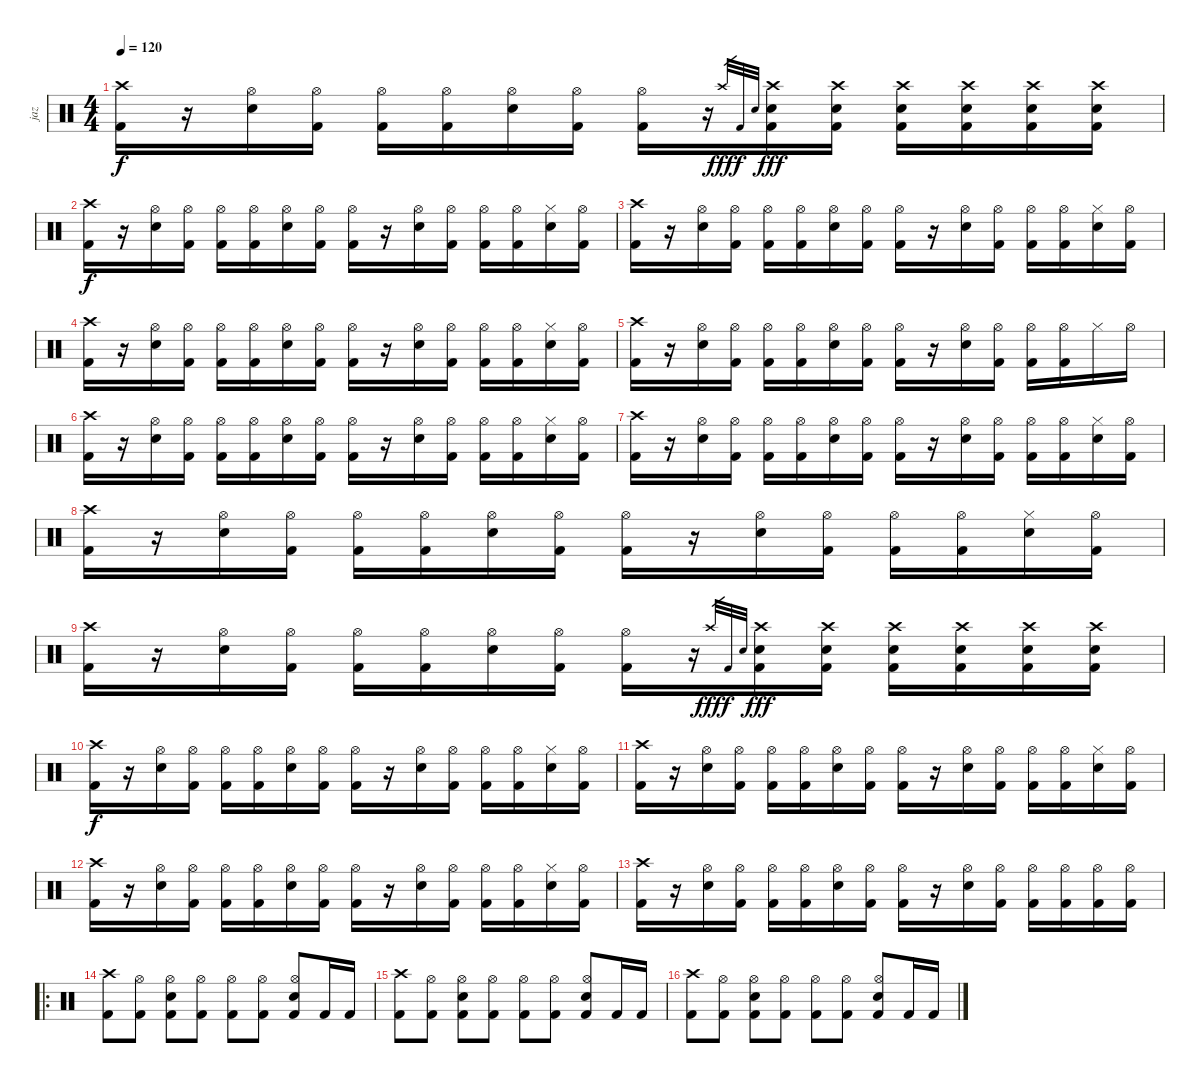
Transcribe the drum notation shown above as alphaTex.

\track ("jaz" "jaz") {instrument percussion}
\staff {score}
\articulation defaults
\ts (4 4)
\tempo 120
\clef neutral
\ks c
("Crash high (hit)" "Kick (hit) 2").16{dy f} r.16 ("Hi-Hat (open)" "Electric Snare (hit)").16 ("Hi-Hat (open)" "Kick (hit) 2").16 ("Hi-Hat (open)" "Kick (hit) 2").16 ("Hi-Hat (open)" "Kick (hit) 2").16 ("Hi-Hat (open)" "Electric Snare (hit)").16 ("Hi-Hat (open)" "Kick (hit) 2").16 ("Hi-Hat (open)" "Kick (hit) 2").16 r.16 "Crash high (hit)".32{gr dy fff} "Kick (hit) 2".32{gr dy f} "Electric Snare (hit)".32{gr} ("Crash high (hit)" "Kick (hit) 2" "Electric Snare (hit)").16{dy fff} ("Crash high (hit)" "Kick (hit) 2" "Electric Snare (hit)").16 ("Crash high (hit)" "Kick (hit) 2" "Electric Snare (hit)").16 ("Crash high (hit)" "Kick (hit) 2" "Electric Snare (hit)").16 ("Crash high (hit)" "Kick (hit) 2" "Electric Snare (hit)").16 ("Crash high (hit)" "Kick (hit) 2" "Electric Snare (hit)").16 |
("Crash high (hit)" "Kick (hit) 2").16{dy f} r.16 ("Hi-Hat (open)" "Electric Snare (hit)").16 ("Hi-Hat (open)" "Kick (hit) 2").16 ("Hi-Hat (open)" "Kick (hit) 2").16 ("Hi-Hat (open)" "Kick (hit) 2").16 ("Hi-Hat (open)" "Electric Snare (hit)").16 ("Hi-Hat (open)" "Kick (hit) 2").16 ("Hi-Hat (open)" "Kick (hit) 2").16 r.16 ("Hi-Hat (open)" "Electric Snare (hit)").16 ("Hi-Hat (open)" "Kick (hit) 2").16 ("Hi-Hat (open)" "Kick (hit) 2").16 ("Hi-Hat (open)" "Kick (hit) 2").16 ("Hi-Hat (closed)" "Electric Snare (hit)").16 ("Hi-Hat (open)" "Kick (hit) 2").16 |
("Crash high (hit)" "Kick (hit) 2").16 r.16 ("Hi-Hat (open)" "Electric Snare (hit)").16 ("Hi-Hat (open)" "Kick (hit) 2").16 ("Hi-Hat (open)" "Kick (hit) 2").16 ("Hi-Hat (open)" "Kick (hit) 2").16 ("Hi-Hat (open)" "Electric Snare (hit)").16 ("Hi-Hat (open)" "Kick (hit) 2").16 ("Hi-Hat (open)" "Kick (hit) 2").16 r.16 ("Hi-Hat (open)" "Electric Snare (hit)").16 ("Hi-Hat (open)" "Kick (hit) 2").16 ("Hi-Hat (open)" "Kick (hit) 2").16 ("Hi-Hat (open)" "Kick (hit) 2").16 ("Hi-Hat (closed)" "Electric Snare (hit)").16 ("Hi-Hat (open)" "Kick (hit) 2").16 |
("Crash high (hit)" "Kick (hit) 2").16 r.16 ("Hi-Hat (open)" "Electric Snare (hit)").16 ("Hi-Hat (open)" "Kick (hit) 2").16 ("Hi-Hat (open)" "Kick (hit) 2").16 ("Hi-Hat (open)" "Kick (hit) 2").16 ("Hi-Hat (open)" "Electric Snare (hit)").16 ("Hi-Hat (open)" "Kick (hit) 2").16 ("Hi-Hat (open)" "Kick (hit) 2").16 r.16 ("Hi-Hat (open)" "Electric Snare (hit)").16 ("Hi-Hat (open)" "Kick (hit) 2").16 ("Hi-Hat (open)" "Kick (hit) 2").16 ("Hi-Hat (open)" "Kick (hit) 2").16 ("Hi-Hat (closed)" "Electric Snare (hit)").16 ("Hi-Hat (open)" "Kick (hit) 2").16 |
("Crash high (hit)" "Kick (hit) 2").16 r.16 ("Hi-Hat (open)" "Electric Snare (hit)").16 ("Hi-Hat (open)" "Kick (hit) 2").16 ("Hi-Hat (open)" "Kick (hit) 2").16 ("Hi-Hat (open)" "Kick (hit) 2").16 ("Hi-Hat (open)" "Electric Snare (hit)").16 ("Hi-Hat (open)" "Kick (hit) 2").16 ("Hi-Hat (open)" "Kick (hit) 2").16 r.16 ("Hi-Hat (open)" "Electric Snare (hit)").16 ("Hi-Hat (open)" "Kick (hit) 2").16 ("Hi-Hat (open)" "Kick (hit) 2").16 ("Hi-Hat (open)" "Kick (hit) 2").16 "Hi-Hat (closed)".16 "Hi-Hat (open)".16 |
("Crash high (hit)" "Kick (hit) 2").16 r.16 ("Hi-Hat (open)" "Electric Snare (hit)").16 ("Hi-Hat (open)" "Kick (hit) 2").16 ("Hi-Hat (open)" "Kick (hit) 2").16 ("Hi-Hat (open)" "Kick (hit) 2").16 ("Hi-Hat (open)" "Electric Snare (hit)").16 ("Hi-Hat (open)" "Kick (hit) 2").16 ("Hi-Hat (open)" "Kick (hit) 2").16 r.16 ("Hi-Hat (open)" "Electric Snare (hit)").16 ("Hi-Hat (open)" "Kick (hit) 2").16 ("Hi-Hat (open)" "Kick (hit) 2").16 ("Hi-Hat (open)" "Kick (hit) 2").16 ("Hi-Hat (closed)" "Electric Snare (hit)").16 ("Hi-Hat (open)" "Kick (hit) 2").16 |
("Crash high (hit)" "Kick (hit) 2").16 r.16 ("Hi-Hat (open)" "Electric Snare (hit)").16 ("Hi-Hat (open)" "Kick (hit) 2").16 ("Hi-Hat (open)" "Kick (hit) 2").16 ("Hi-Hat (open)" "Kick (hit) 2").16 ("Hi-Hat (open)" "Electric Snare (hit)").16 ("Hi-Hat (open)" "Kick (hit) 2").16 ("Hi-Hat (open)" "Kick (hit) 2").16 r.16 ("Hi-Hat (open)" "Electric Snare (hit)").16 ("Hi-Hat (open)" "Kick (hit) 2").16 ("Hi-Hat (open)" "Kick (hit) 2").16 ("Hi-Hat (open)" "Kick (hit) 2").16 ("Hi-Hat (closed)" "Electric Snare (hit)").16 ("Hi-Hat (open)" "Kick (hit) 2").16 |
("Crash high (hit)" "Kick (hit) 2").16 r.16 ("Hi-Hat (open)" "Electric Snare (hit)").16 ("Hi-Hat (open)" "Kick (hit) 2").16 ("Hi-Hat (open)" "Kick (hit) 2").16 ("Hi-Hat (open)" "Kick (hit) 2").16 ("Hi-Hat (open)" "Electric Snare (hit)").16 ("Hi-Hat (open)" "Kick (hit) 2").16 ("Hi-Hat (open)" "Kick (hit) 2").16 r.16 ("Hi-Hat (open)" "Electric Snare (hit)").16 ("Hi-Hat (open)" "Kick (hit) 2").16 ("Hi-Hat (open)" "Kick (hit) 2").16 ("Hi-Hat (open)" "Kick (hit) 2").16 ("Hi-Hat (closed)" "Electric Snare (hit)").16 ("Hi-Hat (open)" "Kick (hit) 2").16 |
("Crash high (hit)" "Kick (hit) 2").16 r.16 ("Hi-Hat (open)" "Electric Snare (hit)").16 ("Hi-Hat (open)" "Kick (hit) 2").16 ("Hi-Hat (open)" "Kick (hit) 2").16 ("Hi-Hat (open)" "Kick (hit) 2").16 ("Hi-Hat (open)" "Electric Snare (hit)").16 ("Hi-Hat (open)" "Kick (hit) 2").16 ("Hi-Hat (open)" "Kick (hit) 2").16 r.16 "Crash high (hit)".32{gr dy fff} "Kick (hit) 2".32{gr dy f} "Electric Snare (hit)".32{gr} ("Crash high (hit)" "Kick (hit) 2" "Electric Snare (hit)").16{dy fff} ("Crash high (hit)" "Kick (hit) 2" "Electric Snare (hit)").16 ("Crash high (hit)" "Kick (hit) 2" "Electric Snare (hit)").16 ("Crash high (hit)" "Kick (hit) 2" "Electric Snare (hit)").16 ("Crash high (hit)" "Kick (hit) 2" "Electric Snare (hit)").16 ("Crash high (hit)" "Kick (hit) 2" "Electric Snare (hit)").16 |
("Crash high (hit)" "Kick (hit) 2").16{dy f} r.16 ("Hi-Hat (open)" "Electric Snare (hit)").16 ("Hi-Hat (open)" "Kick (hit) 2").16 ("Hi-Hat (open)" "Kick (hit) 2").16 ("Hi-Hat (open)" "Kick (hit) 2").16 ("Hi-Hat (open)" "Electric Snare (hit)").16 ("Hi-Hat (open)" "Kick (hit) 2").16 ("Hi-Hat (open)" "Kick (hit) 2").16 r.16 ("Hi-Hat (open)" "Electric Snare (hit)").16 ("Hi-Hat (open)" "Kick (hit) 2").16 ("Hi-Hat (open)" "Kick (hit) 2").16 ("Hi-Hat (open)" "Kick (hit) 2").16 ("Hi-Hat (closed)" "Electric Snare (hit)").16 ("Hi-Hat (open)" "Kick (hit) 2").16 |
("Crash high (hit)" "Kick (hit) 2").16 r.16 ("Hi-Hat (open)" "Electric Snare (hit)").16 ("Hi-Hat (open)" "Kick (hit) 2").16 ("Hi-Hat (open)" "Kick (hit) 2").16 ("Hi-Hat (open)" "Kick (hit) 2").16 ("Hi-Hat (open)" "Electric Snare (hit)").16 ("Hi-Hat (open)" "Kick (hit) 2").16 ("Hi-Hat (open)" "Kick (hit) 2").16 r.16 ("Hi-Hat (open)" "Electric Snare (hit)").16 ("Hi-Hat (open)" "Kick (hit) 2").16 ("Hi-Hat (open)" "Kick (hit) 2").16 ("Hi-Hat (open)" "Kick (hit) 2").16 ("Hi-Hat (closed)" "Electric Snare (hit)").16 ("Hi-Hat (open)" "Kick (hit) 2").16 |
("Crash high (hit)" "Kick (hit) 2").16 r.16 ("Hi-Hat (open)" "Electric Snare (hit)").16 ("Hi-Hat (open)" "Kick (hit) 2").16 ("Hi-Hat (open)" "Kick (hit) 2").16 ("Hi-Hat (open)" "Kick (hit) 2").16 ("Hi-Hat (open)" "Electric Snare (hit)").16 ("Hi-Hat (open)" "Kick (hit) 2").16 ("Hi-Hat (open)" "Kick (hit) 2").16 r.16 ("Hi-Hat (open)" "Electric Snare (hit)").16 ("Hi-Hat (open)" "Kick (hit) 2").16 ("Hi-Hat (open)" "Kick (hit) 2").16 ("Hi-Hat (open)" "Kick (hit) 2").16 ("Hi-Hat (closed)" "Electric Snare (hit)").16 ("Hi-Hat (open)" "Kick (hit) 2").16 |
("Crash high (hit)" "Kick (hit) 2").16 r.16 ("Hi-Hat (open)" "Electric Snare (hit)").16 ("Hi-Hat (open)" "Kick (hit) 2").16 ("Hi-Hat (open)" "Kick (hit) 2").16 ("Hi-Hat (open)" "Kick (hit) 2").16 ("Hi-Hat (open)" "Electric Snare (hit)").16 ("Hi-Hat (open)" "Kick (hit) 2").16 ("Hi-Hat (open)" "Kick (hit) 2").16 r.16 ("Hi-Hat (open)" "Electric Snare (hit)").16 ("Hi-Hat (open)" "Kick (hit) 2").16 ("Hi-Hat (open)" "Kick (hit) 2").16 ("Hi-Hat (open)" "Kick (hit) 2").16 ("Hi-Hat (open)" "Kick (hit) 2").16 ("Hi-Hat (open)" "Kick (hit) 2").16 |
\ro
("Crash high (hit)" "Kick (hit) 2").8 ("Hi-Hat (open)" "Kick (hit) 2").8 ("Hi-Hat (open)" "Electric Snare (hit)" "Kick (hit) 2").8 ("Hi-Hat (open)" "Kick (hit) 2").8 ("Hi-Hat (open)" "Kick (hit) 2").8 ("Hi-Hat (open)" "Kick (hit) 2").8 ("Hi-Hat (open)" "Electric Snare (hit)" "Kick (hit) 2").8 "Kick (hit) 2".16 "Kick (hit) 2".16 |
("Crash high (hit)" "Kick (hit) 2").8 ("Hi-Hat (open)" "Kick (hit) 2").8 ("Hi-Hat (open)" "Electric Snare (hit)" "Kick (hit) 2").8 ("Hi-Hat (open)" "Kick (hit) 2").8 ("Hi-Hat (open)" "Kick (hit) 2").8 ("Hi-Hat (open)" "Kick (hit) 2").8 ("Hi-Hat (open)" "Electric Snare (hit)" "Kick (hit) 2").8 "Kick (hit) 2".16 "Kick (hit) 2".16 |
("Crash high (hit)" "Kick (hit) 2").8 ("Hi-Hat (open)" "Kick (hit) 2").8 ("Hi-Hat (open)" "Electric Snare (hit)" "Kick (hit) 2").8 ("Hi-Hat (open)" "Kick (hit) 2").8 ("Hi-Hat (open)" "Kick (hit) 2").8 ("Hi-Hat (open)" "Kick (hit) 2").8 ("Hi-Hat (open)" "Electric Snare (hit)" "Kick (hit) 2").8 "Kick (hit) 2".16 "Kick (hit) 2".16
